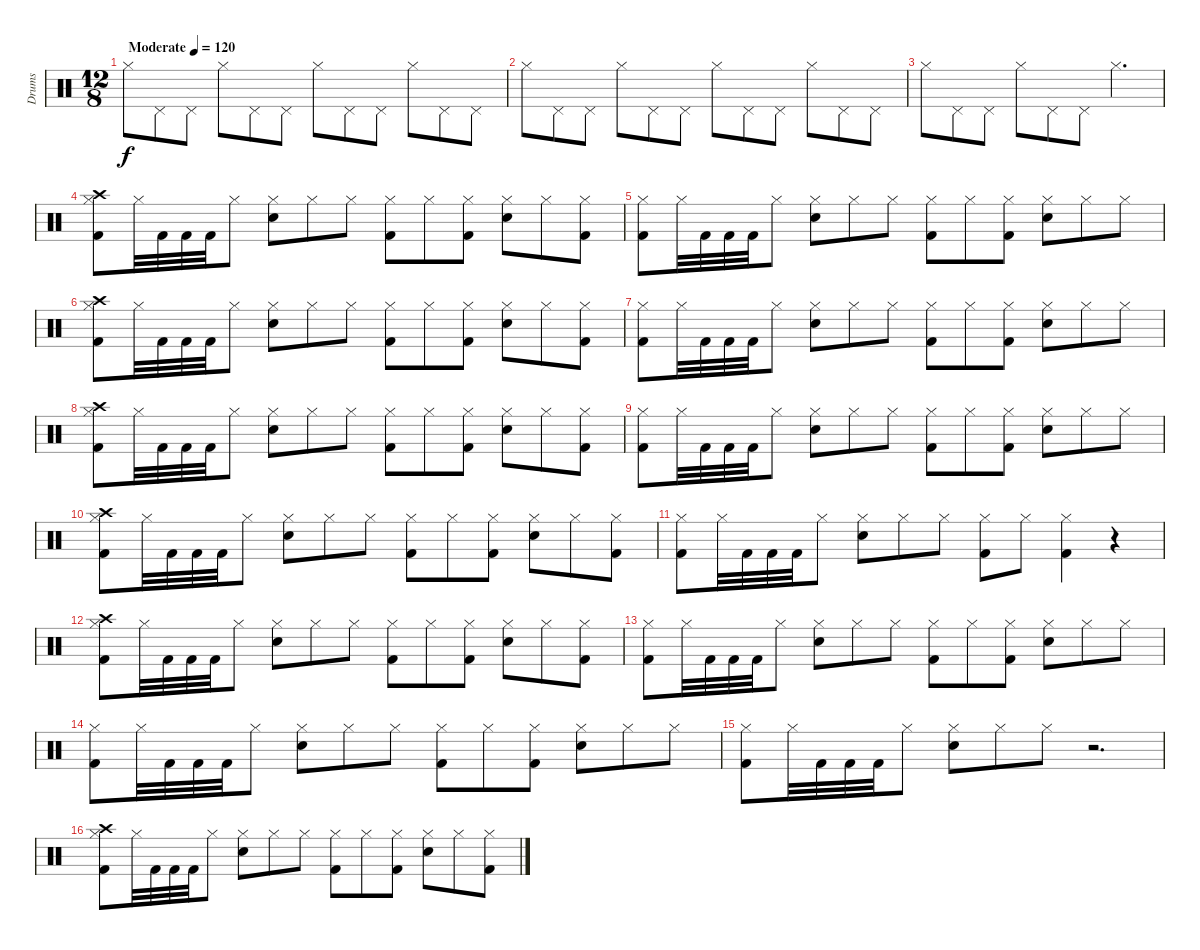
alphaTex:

\track ("Drums" "Drums") {instrument percussion}
\staff {score}
\articulation defaults
\ts (12 8)
\tempo (120 "Moderate")
\clef neutral
\ks c "Hi-Hat (closed)".8{dy f} "Pedal Hi-Hat (hit)".8 "Pedal Hi-Hat (hit)".8 "Hi-Hat (closed)".8 "Pedal Hi-Hat (hit)".8 "Pedal Hi-Hat (hit)".8 "Hi-Hat (closed)".8 "Pedal Hi-Hat (hit)".8 "Pedal Hi-Hat (hit)".8 "Hi-Hat (closed)".8 "Pedal Hi-Hat (hit)".8 "Pedal Hi-Hat (hit)".8
|
"Hi-Hat (closed)".8 "Pedal Hi-Hat (hit)".8 "Pedal Hi-Hat (hit)".8 "Hi-Hat (closed)".8 "Pedal Hi-Hat (hit)".8 "Pedal Hi-Hat (hit)".8 "Hi-Hat (closed)".8 "Pedal Hi-Hat (hit)".8 "Pedal Hi-Hat (hit)".8 "Hi-Hat (closed)".8 "Pedal Hi-Hat (hit)".8 "Pedal Hi-Hat (hit)".8 |
"Hi-Hat (closed)".8 "Pedal Hi-Hat (hit)".8 "Pedal Hi-Hat (hit)".8 "Hi-Hat (closed)".8 "Pedal Hi-Hat (hit)".8 "Pedal Hi-Hat (hit)".8 "Hi-Hat (closed)".2{d} |
("Crash high (hit)" "Hi-Hat (closed)" "Kick (hit) 2").8 "Hi-Hat (closed)".32 "Kick (hit) 2".32 "Kick (hit) 2".32 "Kick (hit) 2".32 "Hi-Hat (closed)".8 ("Hi-Hat (closed)" "Snare (hit) 2").8 "Hi-Hat (closed)".8 "Hi-Hat (closed)".8 ("Hi-Hat (closed)" "Kick (hit) 2").8 "Hi-Hat (closed)".8 ("Hi-Hat (closed)" "Kick (hit) 2").8 ("Hi-Hat (closed)" "Snare (hit) 2").8 "Hi-Hat (closed)".8 ("Hi-Hat (closed)" "Kick (hit) 2").8 |
("Hi-Hat (closed)" "Kick (hit) 2").8 "Hi-Hat (closed)".32 "Kick (hit) 2".32 "Kick (hit) 2".32 "Kick (hit) 2".32 "Hi-Hat (closed)".8 ("Hi-Hat (closed)" "Snare (hit) 2").8 "Hi-Hat (closed)".8 "Hi-Hat (closed)".8 ("Hi-Hat (closed)" "Kick (hit) 2").8 "Hi-Hat (closed)".8 ("Hi-Hat (closed)" "Kick (hit) 2").8 ("Hi-Hat (closed)" "Snare (hit) 2").8 "Hi-Hat (closed)".8 "Hi-Hat (closed)".8 |
("Crash high (hit)" "Hi-Hat (closed)" "Kick (hit) 2").8 "Hi-Hat (closed)".32 "Kick (hit) 2".32 "Kick (hit) 2".32 "Kick (hit) 2".32 "Hi-Hat (closed)".8 ("Hi-Hat (closed)" "Snare (hit) 2").8 "Hi-Hat (closed)".8 "Hi-Hat (closed)".8 ("Hi-Hat (closed)" "Kick (hit) 2").8 "Hi-Hat (closed)".8 ("Hi-Hat (closed)" "Kick (hit) 2").8 ("Hi-Hat (closed)" "Snare (hit) 2").8 "Hi-Hat (closed)".8 ("Hi-Hat (closed)" "Kick (hit) 2").8 |
("Hi-Hat (closed)" "Kick (hit) 2").8 "Hi-Hat (closed)".32 "Kick (hit) 2".32 "Kick (hit) 2".32 "Kick (hit) 2".32 "Hi-Hat (closed)".8 ("Hi-Hat (closed)" "Snare (hit) 2").8 "Hi-Hat (closed)".8 "Hi-Hat (closed)".8 ("Hi-Hat (closed)" "Kick (hit) 2").8 "Hi-Hat (closed)".8 ("Hi-Hat (closed)" "Kick (hit) 2").8 ("Hi-Hat (closed)" "Snare (hit) 2").8 "Hi-Hat (closed)".8 "Hi-Hat (closed)".8 |
("Crash high (hit)" "Hi-Hat (closed)" "Kick (hit) 2").8 "Hi-Hat (closed)".32 "Kick (hit) 2".32 "Kick (hit) 2".32 "Kick (hit) 2".32 "Hi-Hat (closed)".8 ("Hi-Hat (closed)" "Snare (hit) 2").8 "Hi-Hat (closed)".8 "Hi-Hat (closed)".8 ("Hi-Hat (closed)" "Kick (hit) 2").8 "Hi-Hat (closed)".8 ("Hi-Hat (closed)" "Kick (hit) 2").8 ("Hi-Hat (closed)" "Snare (hit) 2").8 "Hi-Hat (closed)".8 ("Hi-Hat (closed)" "Kick (hit) 2").8 |
("Hi-Hat (closed)" "Kick (hit) 2").8 "Hi-Hat (closed)".32 "Kick (hit) 2".32 "Kick (hit) 2".32 "Kick (hit) 2".32 "Hi-Hat (closed)".8 ("Hi-Hat (closed)" "Snare (hit) 2").8 "Hi-Hat (closed)".8 "Hi-Hat (closed)".8 ("Hi-Hat (closed)" "Kick (hit) 2").8 "Hi-Hat (closed)".8 ("Hi-Hat (closed)" "Kick (hit) 2").8 ("Hi-Hat (closed)" "Snare (hit) 2").8 "Hi-Hat (closed)".8 "Hi-Hat (closed)".8 |
("Crash high (hit)" "Hi-Hat (closed)" "Kick (hit) 2").8 "Hi-Hat (closed)".32 "Kick (hit) 2".32 "Kick (hit) 2".32 "Kick (hit) 2".32 "Hi-Hat (closed)".8 ("Hi-Hat (closed)" "Snare (hit) 2").8 "Hi-Hat (closed)".8 "Hi-Hat (closed)".8 ("Hi-Hat (closed)" "Kick (hit) 2").8 "Hi-Hat (closed)".8 ("Hi-Hat (closed)" "Kick (hit) 2").8 ("Hi-Hat (closed)" "Snare (hit) 2").8 "Hi-Hat (closed)".8 ("Hi-Hat (closed)" "Kick (hit) 2").8 |
("Hi-Hat (closed)" "Kick (hit) 2").8 "Hi-Hat (closed)".32 "Kick (hit) 2".32 "Kick (hit) 2".32 "Kick (hit) 2".32 "Hi-Hat (closed)".8 ("Hi-Hat (closed)" "Snare (hit) 2").8 "Hi-Hat (closed)".8 "Hi-Hat (closed)".8 ("Hi-Hat (closed)" "Kick (hit) 2").8 "Hi-Hat (closed)".8 ("Hi-Hat (closed)" "Kick (hit) 2").4 r.4 |
("Crash high (hit)" "Hi-Hat (closed)" "Kick (hit) 2").8 "Hi-Hat (closed)".32 "Kick (hit) 2".32 "Kick (hit) 2".32 "Kick (hit) 2".32 "Hi-Hat (closed)".8 ("Hi-Hat (closed)" "Snare (hit) 2").8 "Hi-Hat (closed)".8 "Hi-Hat (closed)".8 ("Hi-Hat (closed)" "Kick (hit) 2").8 "Hi-Hat (closed)".8 ("Hi-Hat (closed)" "Kick (hit) 2").8 ("Hi-Hat (closed)" "Snare (hit) 2").8 "Hi-Hat (closed)".8 ("Hi-Hat (closed)" "Kick (hit) 2").8 |
("Hi-Hat (closed)" "Kick (hit) 2").8 "Hi-Hat (closed)".32 "Kick (hit) 2".32 "Kick (hit) 2".32 "Kick (hit) 2".32 "Hi-Hat (closed)".8 ("Hi-Hat (closed)" "Snare (hit) 2").8 "Hi-Hat (closed)".8 "Hi-Hat (closed)".8 ("Hi-Hat (closed)" "Kick (hit) 2").8 "Hi-Hat (closed)".8 ("Hi-Hat (closed)" "Kick (hit) 2").8 ("Hi-Hat (closed)" "Snare (hit) 2").8 "Hi-Hat (closed)".8 "Hi-Hat (closed)".8 |
("Hi-Hat (closed)" "Kick (hit) 2").8 "Hi-Hat (closed)".32 "Kick (hit) 2".32 "Kick (hit) 2".32 "Kick (hit) 2".32 "Hi-Hat (closed)".8 ("Hi-Hat (closed)" "Snare (hit) 2").8 "Hi-Hat (closed)".8 "Hi-Hat (closed)".8 ("Hi-Hat (closed)" "Kick (hit) 2").8 "Hi-Hat (closed)".8 ("Hi-Hat (closed)" "Kick (hit) 2").8 ("Hi-Hat (closed)" "Snare (hit) 2").8 "Hi-Hat (closed)".8 "Hi-Hat (closed)".8 |
("Hi-Hat (closed)" "Kick (hit) 2").8 "Hi-Hat (closed)".32 "Kick (hit) 2".32 "Kick (hit) 2".32 "Kick (hit) 2".32 "Hi-Hat (closed)".8 ("Hi-Hat (closed)" "Snare (hit) 2").8 "Hi-Hat (closed)".8 "Hi-Hat (closed)".8 r.2{d} |
("Crash high (hit)" "Hi-Hat (closed)" "Kick (hit) 2").8 "Hi-Hat (closed)".32 "Kick (hit) 2".32 "Kick (hit) 2".32 "Kick (hit) 2".32 "Hi-Hat (closed)".8 ("Hi-Hat (closed)" "Snare (hit) 2").8 "Hi-Hat (closed)".8 "Hi-Hat (closed)".8 ("Hi-Hat (closed)" "Kick (hit) 2").8 "Hi-Hat (closed)".8 ("Hi-Hat (closed)" "Kick (hit) 2").8 ("Hi-Hat (closed)" "Snare (hit) 2").8 "Hi-Hat (closed)".8 ("Hi-Hat (closed)" "Kick (hit) 2").8
